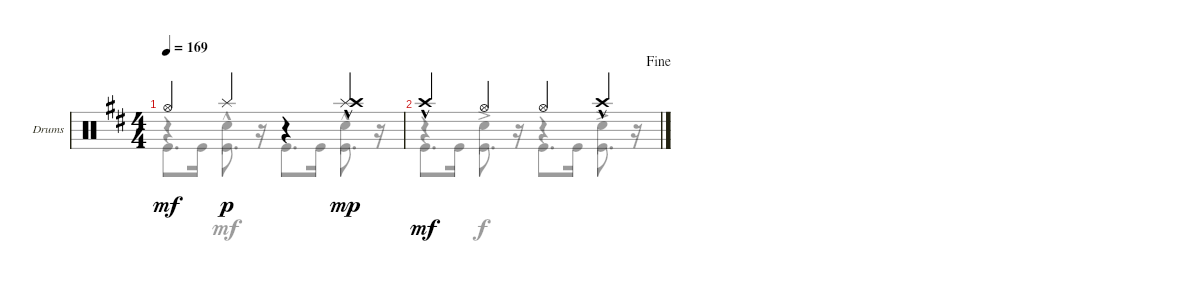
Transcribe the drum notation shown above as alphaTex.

\defaultSystemsLayout 4
\bracketExtendMode groupsimilarinstruments
\firstSystemTrackNameOrientation horizontal
\otherSystemsTrackNameOrientation horizontal
\track ("Drumkit (Wolf Gemora)" "Drums") {instrument percussion}
\staff {score}
\articulation defaults
\voice
\ts (4 4)
\tempo 169
\clef neutral
\ks bminor "Hi-Hat (open)".4{dy mf} "Splash (hit)".4{dy p}
r.4 ("Splash (hit)"{hac} "Crash high (hit)"{hac}).4{dy mp} |
\jump fine "Crash high (hit)"{hac}.4{dy mf} "Hi-Hat (open)".4 "Hi-Hat (open)".4 "Crash high (hit)"{hac}.4
\voice
\clef neutral
\ottava regular
\simile none
\ks bminor "Kick (hit)".8{d dy mf} "Kick (hit)".16 "Kick (hit)".8{d}
r.16 "Kick (hit)".8{d} "Kick (hit)".16 "Kick (hit)".8{d} r.16 |
"Kick (hit)".8{d} "Kick (hit)".16 "Kick (hit)".8{d} r.16 "Kick (hit)".8{d} "Kick (hit)".16 "Kick (hit)".8{d} r.16
\voice
\clef neutral
\ottava regular
\simile none
\ks bminor
r.4{dy mf} "Snare (hit) 2"{hac}.4 r.4 "Snare (hit) 2"{hac}.4 |
r.4 "Snare (hit) 2"{ac}.4{dy f} r.4 "Snare (hit) 2"{ac}.4
